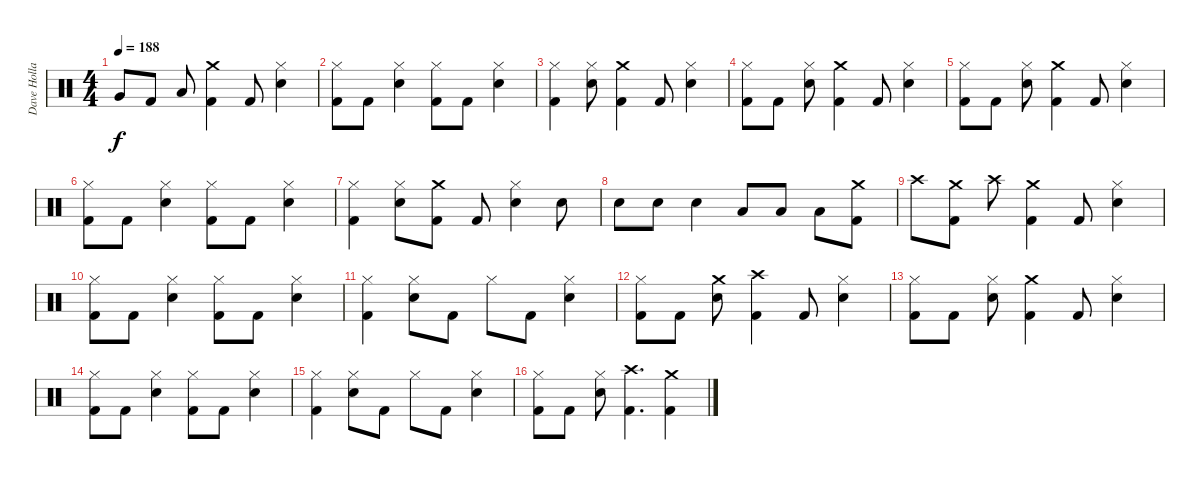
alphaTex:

\track ("Dave Holland" "Dave Holla") {instrument percussion}
\staff {score}
\articulation defaults
\ts (4 4)
\tempo 188
\clef neutral
\ks c "Very Low Tom (hit)".8{dy f} "Kick (hit) 2".8 "Low Floor Tom (hit)".8
("Crash medium (hit)" "Kick (hit) 2").4 "Kick (hit) 2".8 ("Snare (hit) 2" "Hi-Hat (closed)").4 |
("Kick (hit) 2" "Hi-Hat (closed)").8 "Kick (hit) 2".8 ("Snare (hit) 2" "Hi-Hat (closed)").4 ("Kick (hit) 2" "Hi-Hat (closed)").8 "Kick (hit) 2".8 ("Snare (hit) 2" "Hi-Hat (closed)").4 |
("Kick (hit) 2" "Hi-Hat (closed)").4 ("Snare (hit) 2" "Hi-Hat (closed)").8 ("Kick (hit) 2" "Crash medium (hit)").4 "Kick (hit) 2".8 ("Snare (hit) 2" "Hi-Hat (closed)").4 |
("Kick (hit) 2" "Hi-Hat (closed)").8 "Kick (hit) 2".8 ("Snare (hit) 2" "Hi-Hat (closed)").8 ("Kick (hit) 2" "Crash medium (hit)").4 "Kick (hit) 2".8 ("Snare (hit) 2" "Hi-Hat (closed)").4 |
("Kick (hit) 2" "Hi-Hat (closed)").8 "Kick (hit) 2".8 ("Snare (hit) 2" "Hi-Hat (closed)").8 ("Kick (hit) 2" "Crash medium (hit)").4 "Kick (hit) 2".8 ("Snare (hit) 2" "Hi-Hat (closed)").4 |
("Kick (hit) 2" "Hi-Hat (closed)").8 "Kick (hit) 2".8 ("Snare (hit) 2" "Hi-Hat (closed)").4 ("Kick (hit) 2" "Hi-Hat (closed)").8 "Kick (hit) 2".8 ("Snare (hit) 2" "Hi-Hat (closed)").4 |
("Kick (hit) 2" "Hi-Hat (closed)").4 ("Snare (hit) 2" "Hi-Hat (closed)").8 ("Kick (hit) 2" "Crash medium (hit)").8 "Kick (hit) 2".8 ("Snare (hit) 2" "Hi-Hat (closed)").4 "Snare (hit) 2".8 |
"Snare (hit) 2".8 "Snare (hit) 2".8 "Snare (hit) 2".4 "Low Tom (hit)".8 "Low Tom (hit)".8 "Low Tom (hit)".8 ("Kick (hit) 2" "Crash medium (hit)").8 |
"Crash high (hit)".8 ("Kick (hit) 2" "Crash medium (hit)").8 "Crash high (hit)".8 ("Kick (hit) 2" "Crash medium (hit)").4 "Kick (hit) 2".8 ("Snare (hit) 2" "Hi-Hat (closed)").4 |
("Kick (hit) 2" "Hi-Hat (closed)").8 "Kick (hit) 2".8 ("Snare (hit) 2" "Hi-Hat (closed)").4 ("Kick (hit) 2" "Hi-Hat (closed)").8 "Kick (hit) 2".8 ("Snare (hit) 2" "Hi-Hat (closed)").4 |
("Kick (hit) 2" "Hi-Hat (closed)").4 ("Snare (hit) 2" "Hi-Hat (closed)").8 "Kick (hit) 2".8 "Hi-Hat (closed)".8 "Kick (hit) 2".8 ("Snare (hit) 2" "Hi-Hat (closed)").4 |
("Kick (hit) 2" "Hi-Hat (closed)").8 "Kick (hit) 2".8 ("Crash medium (hit)" "Snare (hit) 2").8 ("Crash high (hit)" "Kick (hit) 2").4 "Kick (hit) 2".8 ("Snare (hit) 2" "Hi-Hat (closed)").4 |
("Kick (hit) 2" "Hi-Hat (closed)").8 "Kick (hit) 2".8 ("Snare (hit) 2" "Hi-Hat (closed)").8 ("Kick (hit) 2" "Crash medium (hit)").4 "Kick (hit) 2".8 ("Snare (hit) 2" "Hi-Hat (closed)").4 |
("Kick (hit) 2" "Hi-Hat (closed)").8 "Kick (hit) 2".8 ("Snare (hit) 2" "Hi-Hat (closed)").4 ("Kick (hit) 2" "Hi-Hat (closed)").8 "Kick (hit) 2".8 ("Snare (hit) 2" "Hi-Hat (closed)").4 |
("Kick (hit) 2" "Hi-Hat (closed)").4 ("Snare (hit) 2" "Hi-Hat (closed)").8 "Kick (hit) 2".8 "Hi-Hat (closed)".8 "Kick (hit) 2".8 ("Snare (hit) 2" "Hi-Hat (closed)").4 |
("Kick (hit) 2" "Hi-Hat (closed)").8 "Kick (hit) 2".8 ("Snare (hit) 2" "Hi-Hat (closed)").8 ("Kick (hit) 2" "Crash high (hit)").4{d} ("Kick (hit) 2" "Crash medium (hit)").4
